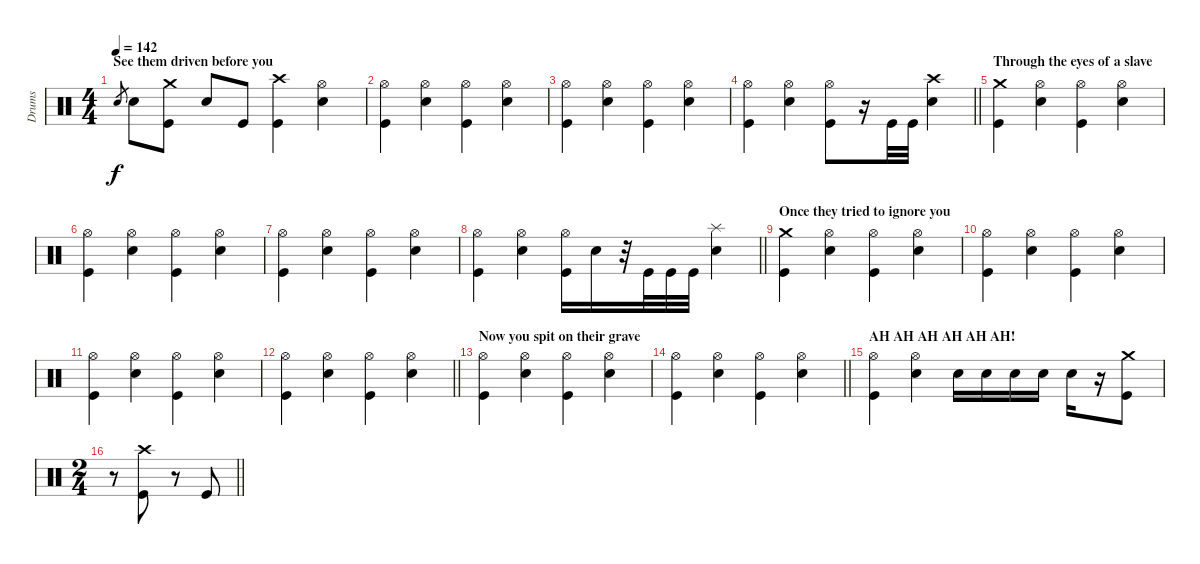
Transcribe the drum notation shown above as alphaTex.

\track ("Drums" "Drums") {instrument percussion}
\staff {score}
\articulation defaults
\ts (4 4)
\section ("" "See them driven before you")
\tempo 142
\clef neutral
\ks c "Snare (hit) 2".8{gr dy f} "Snare (hit) 2".8
("Crash medium (hit)" "Kick (hit)").8 "Snare (hit) 2".8 "Kick (hit)".8 ("Crash high (hit)" "Kick (hit)").4 ("Hi-Hat (open)" "Snare (hit) 2").4 |
("Hi-Hat (open)" "Kick (hit)").4 ("Hi-Hat (open)" "Snare (hit) 2").4 ("Hi-Hat (open)" "Kick (hit)").4 ("Hi-Hat (open)" "Snare (hit) 2").4 |
("Hi-Hat (open)" "Kick (hit)").4 ("Hi-Hat (open)" "Snare (hit) 2").4 ("Hi-Hat (open)" "Kick (hit)").4 ("Hi-Hat (open)" "Snare (hit) 2").4 |
\barLineRight lightlight
("Hi-Hat (open)" "Kick (hit)").4 ("Hi-Hat (open)" "Snare (hit) 2").4 ("Hi-Hat (open)" "Kick (hit)").8 r.16 "Kick (hit)".32 "Kick (hit)".32 ("Crash high (hit)" "Snare (hit) 2").4 |
\section ("" "Through the eyes of a slave")
("Crash medium (hit)" "Kick (hit)").4 ("Hi-Hat (open)" "Snare (hit) 2").4 ("Hi-Hat (open)" "Kick (hit)").4 ("Hi-Hat (open)" "Snare (hit) 2").4 |
("Hi-Hat (open)" "Kick (hit)").4 ("Hi-Hat (open)" "Snare (hit) 2").4 ("Hi-Hat (open)" "Kick (hit)").4 ("Hi-Hat (open)" "Snare (hit) 2").4 |
("Hi-Hat (open)" "Kick (hit)").4 ("Hi-Hat (open)" "Snare (hit) 2").4 ("Hi-Hat (open)" "Kick (hit)").4 ("Hi-Hat (open)" "Snare (hit) 2").4 |
\barLineRight lightlight
("Hi-Hat (open)" "Kick (hit)").4 ("Hi-Hat (open)" "Snare (hit) 2").4 ("Hi-Hat (open)" "Kick (hit)").16 "Snare (hit) 2".16 r.32 "Kick (hit)".32 "Kick (hit)".32 "Kick (hit)".32 ("Splash (hit)" "Snare (hit) 2").4 |
\section ("" "Once they tried to ignore you")
("Crash medium (hit)" "Kick (hit)").4 ("Hi-Hat (open)" "Snare (hit) 2").4 ("Hi-Hat (open)" "Kick (hit)").4 ("Hi-Hat (open)" "Snare (hit) 2").4 |
("Hi-Hat (open)" "Kick (hit)").4 ("Hi-Hat (open)" "Snare (hit) 2").4 ("Hi-Hat (open)" "Kick (hit)").4 ("Hi-Hat (open)" "Snare (hit) 2").4 |
("Hi-Hat (open)" "Kick (hit)").4 ("Hi-Hat (open)" "Snare (hit) 2").4 ("Hi-Hat (open)" "Kick (hit)").4 ("Hi-Hat (open)" "Snare (hit) 2").4 |
\barLineRight lightlight
("Hi-Hat (open)" "Kick (hit)").4 ("Hi-Hat (open)" "Snare (hit) 2").4 ("Hi-Hat (open)" "Kick (hit)").4 ("Hi-Hat (open)" "Snare (hit) 2").4 |
\section ("" "Now you spit on their grave")
("Hi-Hat (open)" "Kick (hit)").4 ("Hi-Hat (open)" "Snare (hit) 2").4 ("Hi-Hat (open)" "Kick (hit)").4 ("Hi-Hat (open)" "Snare (hit) 2").4 |
\barLineRight lightlight
("Hi-Hat (open)" "Kick (hit)").4 ("Hi-Hat (open)" "Snare (hit) 2").4 ("Hi-Hat (open)" "Kick (hit)").4 ("Hi-Hat (open)" "Snare (hit) 2").4 |
\section ("" "AH AH AH AH AH AH!")
("Hi-Hat (open)" "Kick (hit)").4 ("Hi-Hat (open)" "Snare (hit) 2").4 "Snare (hit) 2".16 "Snare (hit) 2".16 "Snare (hit) 2".16 "Snare (hit) 2".16 "Snare (hit) 2".16 r.16 ("Crash medium (hit)" "Kick (hit)").8 |
\ts (2 4)
\barLineRight lightlight
r.8 ("Crash high (hit)" "Kick (hit)").8 r.8 "Kick (hit)".8
